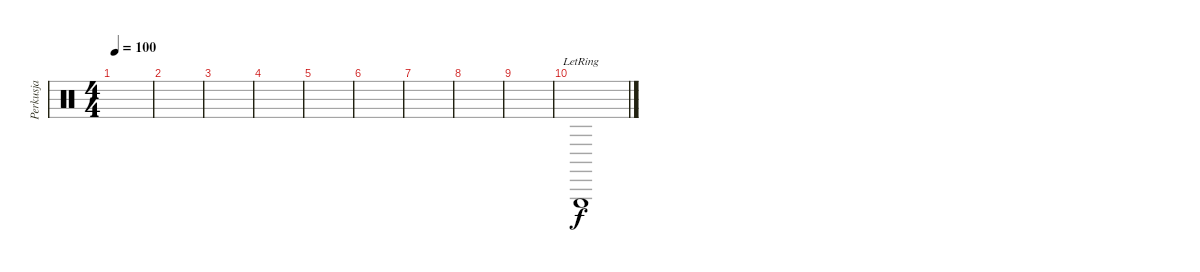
\track ("Perkusja" "Perkusja") {instrument percussion}
\staff {score}
\articulation defaults
\ts (4 4)
\tempo 100
\clef neutral
\ks c
|
|
|
|
|
|
|
|
|
"Triangle (hit)"{lr}.1
